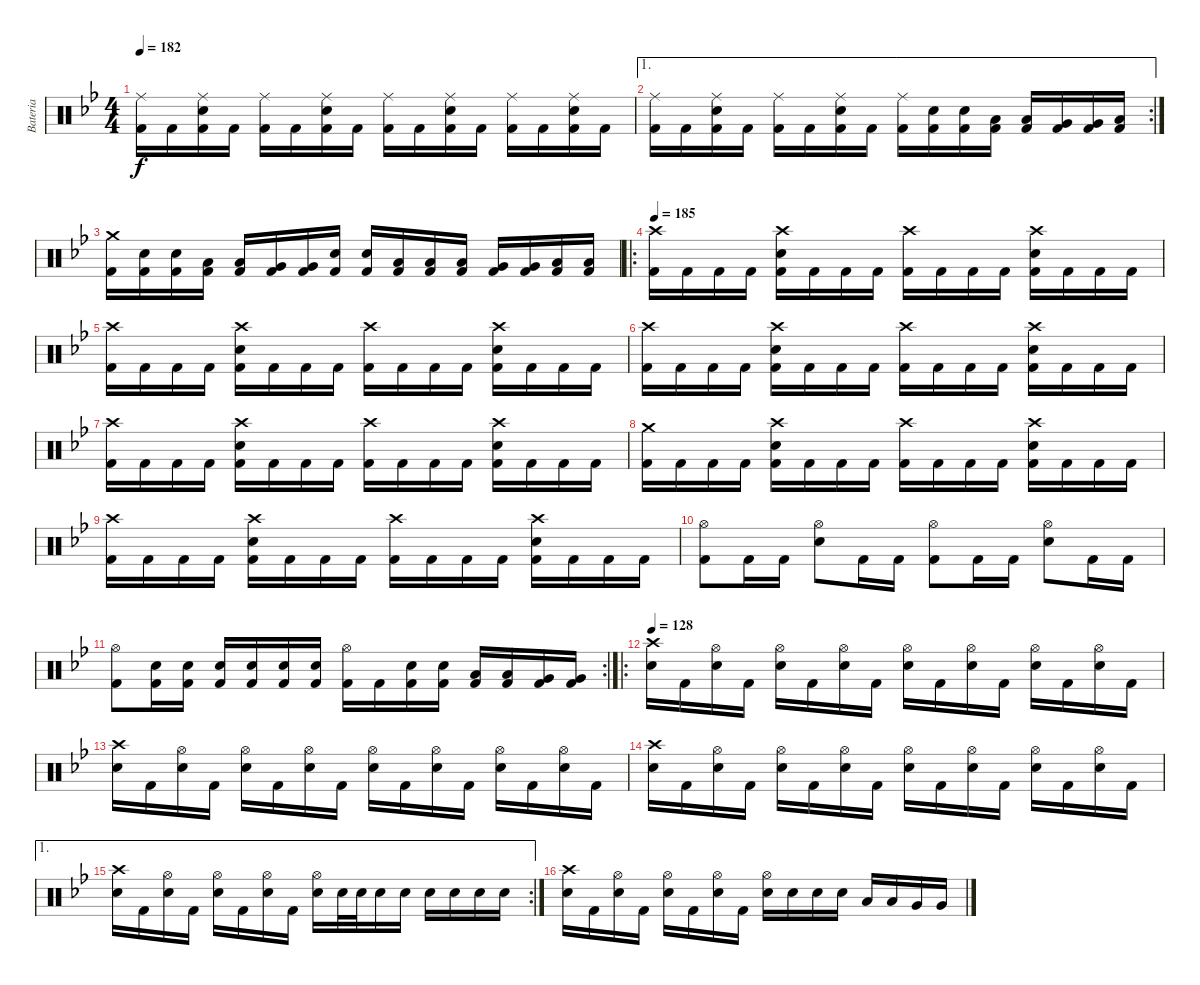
\track ("Bateria" "Bateria") {instrument percussion}
\staff {score}
\articulation defaults
\ts (4 4)
\tempo 182
\clef neutral
\ks gminor
("Ride (middle)" "Kick (hit) 2").16{dy f} "Kick (hit) 2".16 ("Ride (middle)" "Electric Snare (hit)" "Kick (hit) 2").16 "Kick (hit) 2".16 ("Ride (middle)" "Kick (hit) 2").16 "Kick (hit) 2".16 ("Ride (middle)" "Electric Snare (hit)" "Kick (hit) 2").16 "Kick (hit) 2".16 ("Ride (middle)" "Kick (hit) 2").16 "Kick (hit) 2".16 ("Ride (middle)" "Electric Snare (hit)" "Kick (hit) 2").16 "Kick (hit) 2".16 ("Ride (middle)" "Kick (hit) 2").16 "Kick (hit) 2".16 ("Ride (middle)" "Electric Snare (hit)" "Kick (hit) 2").16 "Kick (hit) 2".16 |
\ae 1
\rc 2
("Ride (middle)" "Kick (hit) 2").16 "Kick (hit) 2".16 ("Ride (middle)" "Electric Snare (hit)" "Kick (hit) 2").16 "Kick (hit) 2".16 ("Ride (middle)" "Kick (hit) 2").16 "Kick (hit) 2".16 ("Ride (middle)" "Electric Snare (hit)" "Kick (hit) 2").16 "Kick (hit) 2".16 ("Ride (middle)" "Kick (hit) 2").16 ("Electric Snare (hit)" "Kick (hit) 2").16 ("Electric Snare (hit)" "Kick (hit) 2").16 ("Low Tom (hit)" "Kick (hit) 2").16 ("Low Tom (hit)" "Kick (hit) 2").16 ("Very Low Tom (hit)" "Kick (hit) 2").16 ("Very Low Tom (hit)" "Kick (hit) 2").16 ("Low Floor Tom (hit)" "Kick (hit) 2").16 |
("Crash medium (hit)" "Kick (hit) 2").16 ("Electric Snare (hit)" "Kick (hit) 2").16 ("Electric Snare (hit)" "Kick (hit) 2").16 ("Low Tom (hit)" "Kick (hit) 2").16 ("Low Tom (hit)" "Kick (hit) 2").16 ("Very Low Tom (hit)" "Kick (hit) 2").16 ("Very Low Tom (hit)" "Kick (hit) 2").16 ("Electric Snare (hit)" "Kick (hit) 2").16 ("Electric Snare (hit)" "Kick (hit) 2").16 ("Low Tom (hit)" "Kick (hit) 2").16 ("Low Tom (hit)" "Kick (hit) 2").16 ("Low Tom (hit)" "Kick (hit) 2").16 ("Very Low Tom (hit)" "Kick (hit) 2").16 ("Very Low Tom (hit)" "Kick (hit) 2").16 ("Low Floor Tom (hit)" "Kick (hit) 2").16 ("Low Floor Tom (hit)" "Kick (hit) 2").16 |
\ro
\tempo 185
("Crash high (hit)" "Kick (hit) 2").16 "Kick (hit) 2".16 "Kick (hit) 2".16 "Kick (hit) 2".16 ("Crash high (hit)" "Electric Snare (hit)" "Kick (hit) 2").16 "Kick (hit) 2".16 "Kick (hit) 2".16 "Kick (hit) 2".16 ("Crash high (hit)" "Kick (hit) 2").16 "Kick (hit) 2".16 "Kick (hit) 2".16 "Kick (hit) 2".16 ("Crash high (hit)" "Electric Snare (hit)" "Kick (hit) 2").16 "Kick (hit) 2".16 "Kick (hit) 2".16 "Kick (hit) 2".16 |
("Crash high (hit)" "Kick (hit) 2").16 "Kick (hit) 2".16 "Kick (hit) 2".16 "Kick (hit) 2".16 ("Crash high (hit)" "Electric Snare (hit)" "Kick (hit) 2").16 "Kick (hit) 2".16 "Kick (hit) 2".16 "Kick (hit) 2".16 ("Crash high (hit)" "Kick (hit) 2").16 "Kick (hit) 2".16 "Kick (hit) 2".16 "Kick (hit) 2".16 ("Crash high (hit)" "Electric Snare (hit)" "Kick (hit) 2").16 "Kick (hit) 2".16 "Kick (hit) 2".16 "Kick (hit) 2".16 |
("Crash high (hit)" "Kick (hit) 2").16 "Kick (hit) 2".16 "Kick (hit) 2".16 "Kick (hit) 2".16 ("Crash high (hit)" "Electric Snare (hit)" "Kick (hit) 2").16 "Kick (hit) 2".16 "Kick (hit) 2".16 "Kick (hit) 2".16 ("Crash high (hit)" "Kick (hit) 2").16 "Kick (hit) 2".16 "Kick (hit) 2".16 "Kick (hit) 2".16 ("Crash high (hit)" "Electric Snare (hit)" "Kick (hit) 2").16 "Kick (hit) 2".16 "Kick (hit) 2".16 "Kick (hit) 2".16 |
("Crash high (hit)" "Kick (hit) 2").16 "Kick (hit) 2".16 "Kick (hit) 2".16 "Kick (hit) 2".16 ("Crash high (hit)" "Electric Snare (hit)" "Kick (hit) 2").16 "Kick (hit) 2".16 "Kick (hit) 2".16 "Kick (hit) 2".16 ("Crash high (hit)" "Kick (hit) 2").16 "Kick (hit) 2".16 "Kick (hit) 2".16 "Kick (hit) 2".16 ("Crash high (hit)" "Electric Snare (hit)" "Kick (hit) 2").16 "Kick (hit) 2".16 "Kick (hit) 2".16 "Kick (hit) 2".16 |
("Crash medium (hit)" "Kick (hit) 2").16 "Kick (hit) 2".16 "Kick (hit) 2".16 "Kick (hit) 2".16 ("Crash high (hit)" "Electric Snare (hit)" "Kick (hit) 2").16 "Kick (hit) 2".16 "Kick (hit) 2".16 "Kick (hit) 2".16 ("Crash high (hit)" "Kick (hit) 2").16 "Kick (hit) 2".16 "Kick (hit) 2".16 "Kick (hit) 2".16 ("Crash high (hit)" "Electric Snare (hit)" "Kick (hit) 2").16 "Kick (hit) 2".16 "Kick (hit) 2".16 "Kick (hit) 2".16 |
("Crash high (hit)" "Kick (hit) 2").16 "Kick (hit) 2".16 "Kick (hit) 2".16 "Kick (hit) 2".16 ("Crash high (hit)" "Electric Snare (hit)" "Kick (hit) 2").16 "Kick (hit) 2".16 "Kick (hit) 2".16 "Kick (hit) 2".16 ("Crash high (hit)" "Kick (hit) 2").16 "Kick (hit) 2".16 "Kick (hit) 2".16 "Kick (hit) 2".16 ("Crash high (hit)" "Electric Snare (hit)" "Kick (hit) 2").16 "Kick (hit) 2".16 "Kick (hit) 2".16 "Kick (hit) 2".16 |
("Hi-Hat (open)" "Kick (hit) 2").8 "Kick (hit) 2".16 "Kick (hit) 2".16 ("Hi-Hat (open)" "Electric Snare (hit)").8 "Kick (hit) 2".16 "Kick (hit) 2".16 ("Hi-Hat (open)" "Kick (hit) 2").8 "Kick (hit) 2".16 "Kick (hit) 2".16 ("Hi-Hat (open)" "Electric Snare (hit)").8 "Kick (hit) 2".16 "Kick (hit) 2".16 |
\rc 2
("Hi-Hat (open)" "Kick (hit) 2").8 ("Electric Snare (hit)" "Kick (hit) 2").16 ("Electric Snare (hit)" "Kick (hit) 2").16 ("Electric Snare (hit)" "Kick (hit) 2").16 ("Electric Snare (hit)" "Kick (hit) 2").16 ("Electric Snare (hit)" "Kick (hit) 2").16 ("Electric Snare (hit)" "Kick (hit) 2").16 ("Hi-Hat (open)" "Kick (hit) 2").16 "Kick (hit) 2".16 ("Electric Snare (hit)" "Kick (hit) 2").16 ("Electric Snare (hit)" "Kick (hit) 2").16 ("Low Tom (hit)" "Kick (hit) 2").16 ("Low Tom (hit)" "Kick (hit) 2").16 ("Very Low Tom (hit)" "Kick (hit) 2").16 ("Very Low Tom (hit)" "Kick (hit) 2").16 |
\ro
\tempo 128
("Crash high (hit)" "Electric Snare (hit)").16 "Kick (hit) 2".16 ("Hi-Hat (open)" "Electric Snare (hit)").16 "Kick (hit) 2".16 ("Hi-Hat (open)" "Electric Snare (hit)").16 "Kick (hit) 2".16 ("Hi-Hat (open)" "Electric Snare (hit)").16 "Kick (hit) 2".16 ("Hi-Hat (open)" "Electric Snare (hit)").16 "Kick (hit) 2".16 ("Hi-Hat (open)" "Electric Snare (hit)").16 "Kick (hit) 2".16 ("Hi-Hat (open)" "Electric Snare (hit)").16 "Kick (hit) 2".16 ("Hi-Hat (open)" "Electric Snare (hit)").16 "Kick (hit) 2".16 |
("Crash high (hit)" "Electric Snare (hit)").16 "Kick (hit) 2".16 ("Hi-Hat (open)" "Electric Snare (hit)").16 "Kick (hit) 2".16 ("Hi-Hat (open)" "Electric Snare (hit)").16 "Kick (hit) 2".16 ("Hi-Hat (open)" "Electric Snare (hit)").16 "Kick (hit) 2".16 ("Hi-Hat (open)" "Electric Snare (hit)").16 "Kick (hit) 2".16 ("Hi-Hat (open)" "Electric Snare (hit)").16 "Kick (hit) 2".16 ("Hi-Hat (open)" "Electric Snare (hit)").16 "Kick (hit) 2".16 ("Hi-Hat (open)" "Electric Snare (hit)").16 "Kick (hit) 2".16 |
("Crash high (hit)" "Electric Snare (hit)").16 "Kick (hit) 2".16 ("Hi-Hat (open)" "Electric Snare (hit)").16 "Kick (hit) 2".16 ("Hi-Hat (open)" "Electric Snare (hit)").16 "Kick (hit) 2".16 ("Hi-Hat (open)" "Electric Snare (hit)").16 "Kick (hit) 2".16 ("Hi-Hat (open)" "Electric Snare (hit)").16 "Kick (hit) 2".16 ("Hi-Hat (open)" "Electric Snare (hit)").16 "Kick (hit) 2".16 ("Hi-Hat (open)" "Electric Snare (hit)").16 "Kick (hit) 2".16 ("Hi-Hat (open)" "Electric Snare (hit)").16 "Kick (hit) 2".16 |
\ae 1
\rc 2
("Crash high (hit)" "Electric Snare (hit)").16 "Kick (hit) 2".16 ("Hi-Hat (open)" "Electric Snare (hit)").16 "Kick (hit) 2".16 ("Hi-Hat (open)" "Electric Snare (hit)").16 "Kick (hit) 2".16 ("Hi-Hat (open)" "Electric Snare (hit)").16 "Kick (hit) 2".16 ("Hi-Hat (open)" "Electric Snare (hit)").16 "Electric Snare (hit)".32 "Electric Snare (hit)".32 "Electric Snare (hit)".16 "Electric Snare (hit)".16 "Electric Snare (hit)".16 "Electric Snare (hit)".16 "Electric Snare (hit)".16 "Electric Snare (hit)".16 |
("Crash high (hit)" "Electric Snare (hit)").16 "Kick (hit) 2".16 ("Hi-Hat (open)" "Electric Snare (hit)").16 "Kick (hit) 2".16 ("Hi-Hat (open)" "Electric Snare (hit)").16 "Kick (hit) 2".16 ("Hi-Hat (open)" "Electric Snare (hit)").16 "Kick (hit) 2".16 ("Hi-Hat (open)" "Electric Snare (hit)").16 "Electric Snare (hit)".16 "Electric Snare (hit)".16 "Electric Snare (hit)".16 "Low Tom (hit)".16 "Low Tom (hit)".16 "Very Low Tom (hit)".16 "Very Low Tom (hit)".16
